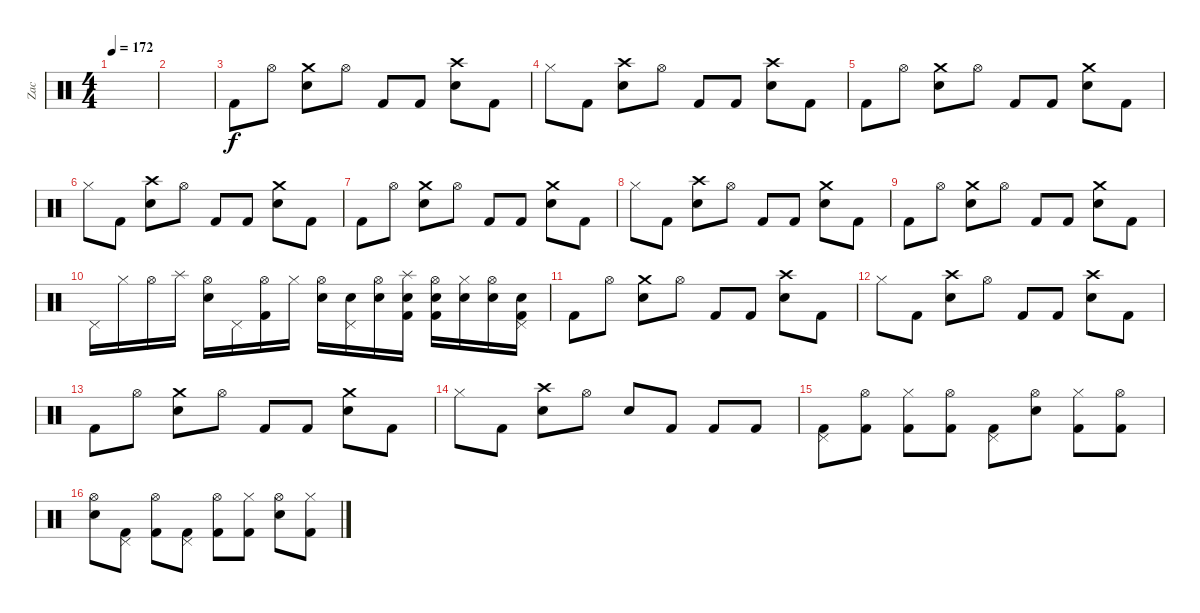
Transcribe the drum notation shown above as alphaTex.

\track ("Zac" "Zac") {instrument percussion}
\staff {score}
\articulation defaults
\ts (4 4)
\tempo 172
\clef neutral
\ks c
|
|
"Kick (hit) 2".8 "Hi-Hat (open)".8 ("Crash medium (hit)" "Electric Snare (hit)").8 "Hi-Hat (open)".8 "Kick (hit) 2".8 "Kick (hit) 2".8 ("Crash high (hit)" "Electric Snare (hit)").8 "Kick (hit) 2".8 |
"Hi-Hat (closed)".8 "Kick (hit) 2".8 ("Crash high (hit)" "Electric Snare (hit)").8 "Hi-Hat (open)".8 "Kick (hit) 2".8 "Kick (hit) 2".8 ("Crash high (hit)" "Electric Snare (hit)").8 "Kick (hit) 2".8 |
"Kick (hit) 2".8 "Hi-Hat (open)".8 ("Crash medium (hit)" "Electric Snare (hit)").8 "Hi-Hat (open)".8 "Kick (hit) 2".8 "Kick (hit) 2".8 ("Crash medium (hit)" "Electric Snare (hit)").8 "Kick (hit) 2".8 |
"Hi-Hat (closed)".8 "Kick (hit) 2".8 ("Crash high (hit)" "Electric Snare (hit)").8 "Hi-Hat (open)".8 "Kick (hit) 2".8 "Kick (hit) 2".8 ("Crash medium (hit)" "Electric Snare (hit)").8 "Kick (hit) 2".8 |
"Kick (hit) 2".8 "Hi-Hat (open)".8 ("Crash medium (hit)" "Electric Snare (hit)").8 "Hi-Hat (open)".8 "Kick (hit) 2".8 "Kick (hit) 2".8 ("Crash medium (hit)" "Electric Snare (hit)").8 "Kick (hit) 2".8 |
"Hi-Hat (closed)".8 "Kick (hit) 2".8 ("Crash high (hit)" "Electric Snare (hit)").8 "Hi-Hat (open)".8 "Kick (hit) 2".8 "Kick (hit) 2".8 ("Crash medium (hit)" "Electric Snare (hit)").8 "Kick (hit) 2".8 |
"Kick (hit) 2".8 "Hi-Hat (open)".8 ("Crash medium (hit)" "Electric Snare (hit)").8 "Hi-Hat (open)".8 "Kick (hit) 2".8 "Kick (hit) 2".8 ("Crash medium (hit)" "Electric Snare (hit)").8 "Kick (hit) 2".8 |
"Pedal Hi-Hat (hit)".16 "Hi-Hat (closed)".16 "Hi-Hat (open)".16 "Splash (hit)".16 ("Electric Snare (hit)" "Hi-Hat (open)").16 "Pedal Hi-Hat (hit)".16 ("Kick (hit) 2" "Hi-Hat (open)").16 "Hi-Hat (closed)".16 ("Electric Snare (hit)" "Hi-Hat (open)").16 ("Pedal Hi-Hat (hit)" "Electric Snare (hit)").16 ("Electric Snare (hit)" "Hi-Hat (open)").16 ("Splash (hit)" "Electric Snare (hit)" "Kick (hit) 2").16 ("Electric Snare (hit)" "Kick (hit) 2" "Hi-Hat (open)").16 ("Hi-Hat (closed)" "Electric Snare (hit)").16 ("Electric Snare (hit)" "Hi-Hat (open)").16 ("Pedal Hi-Hat (hit)" "Electric Snare (hit)" "Kick (hit) 2").16 |
"Kick (hit) 2".8 "Hi-Hat (open)".8 ("Crash medium (hit)" "Electric Snare (hit)").8 "Hi-Hat (open)".8 "Kick (hit) 2".8 "Kick (hit) 2".8 ("Crash high (hit)" "Electric Snare (hit)").8 "Kick (hit) 2".8 |
"Hi-Hat (closed)".8 "Kick (hit) 2".8 ("Crash high (hit)" "Electric Snare (hit)").8 "Hi-Hat (open)".8 "Kick (hit) 2".8 "Kick (hit) 2".8 ("Crash high (hit)" "Electric Snare (hit)").8 "Kick (hit) 2".8 |
"Kick (hit) 2".8 "Hi-Hat (open)".8 ("Crash medium (hit)" "Electric Snare (hit)").8 "Hi-Hat (open)".8 "Kick (hit) 2".8 "Kick (hit) 2".8 ("Crash medium (hit)" "Electric Snare (hit)").8 "Kick (hit) 2".8 |
"Hi-Hat (closed)".8 "Kick (hit) 2".8 ("Crash high (hit)" "Electric Snare (hit)").8 "Hi-Hat (open)".8 "Electric Snare (hit)".8 "Kick (hit) 2".8 "Kick (hit) 2".8 "Kick (hit) 2".8 |
("Pedal Hi-Hat (hit)" "Kick (hit) 2").8 ("Kick (hit) 2" "Hi-Hat (open)").8 ("Hi-Hat (closed)" "Kick (hit) 2").8 ("Kick (hit) 2" "Hi-Hat (open)").8 ("Pedal Hi-Hat (hit)" "Kick (hit) 2").8 ("Electric Snare (hit)" "Hi-Hat (open)").8 ("Hi-Hat (closed)" "Kick (hit) 2").8 ("Kick (hit) 2" "Hi-Hat (open)").8 |
("Electric Snare (hit)" "Hi-Hat (open)").8 ("Pedal Hi-Hat (hit)" "Kick (hit) 2").8 ("Kick (hit) 2" "Hi-Hat (open)").8 ("Pedal Hi-Hat (hit)" "Kick (hit) 2").8 ("Kick (hit) 2" "Hi-Hat (open)").8 ("Hi-Hat (closed)" "Kick (hit) 2").8 ("Electric Snare (hit)" "Hi-Hat (open)").8 ("Hi-Hat (closed)" "Kick (hit) 2").8
